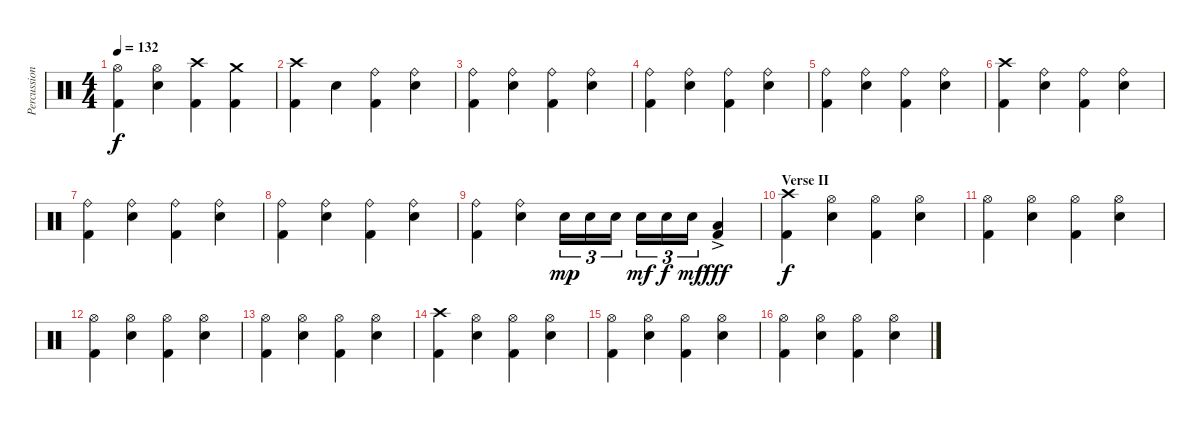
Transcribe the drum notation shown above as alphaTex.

\track ("Percussion" "Percussion") {instrument percussion}
\staff {score}
\articulation defaults
\ts (4 4)
\tempo 132
\clef neutral
\ks c
("Kick (hit) 2" "Hi-Hat (open)").4{dy f} ("Electric Snare (hit)" "Hi-Hat (open)").4 ("Kick (hit) 2" "Crash high (hit)").4 ("Kick (hit) 2" "Crash medium (hit)").4 |
("Kick (hit) 2" "Crash high (hit)").4 "Electric Snare (hit)".4 ("Kick (hit) 2" "Ride (bell)").4 ("Electric Snare (hit)" "Ride (bell)").4 |
("Kick (hit) 2" "Ride (bell)").4 ("Electric Snare (hit)" "Ride (bell)").4 ("Kick (hit) 2" "Ride (bell)").4 ("Electric Snare (hit)" "Ride (bell)").4 |
("Kick (hit) 2" "Ride (bell)").4 ("Electric Snare (hit)" "Ride (bell)").4 ("Kick (hit) 2" "Ride (bell)").4 ("Electric Snare (hit)" "Ride (bell)").4 |
("Kick (hit) 2" "Ride (bell)").4 ("Electric Snare (hit)" "Ride (bell)").4 ("Kick (hit) 2" "Ride (bell)").4 ("Electric Snare (hit)" "Ride (bell)").4 |
("Kick (hit) 2" "Crash high (hit)").4 ("Electric Snare (hit)" "Ride (bell)").4 ("Kick (hit) 2" "Ride (bell)").4 ("Electric Snare (hit)" "Ride (bell)").4 |
("Kick (hit) 2" "Ride (bell)").4 ("Electric Snare (hit)" "Ride (bell)").4 ("Kick (hit) 2" "Ride (bell)").4 ("Electric Snare (hit)" "Ride (bell)").4 |
("Kick (hit) 2" "Ride (bell)").4 ("Electric Snare (hit)" "Ride (bell)").4 ("Kick (hit) 2" "Ride (bell)").4 ("Electric Snare (hit)" "Ride (bell)").4 |
("Kick (hit) 2" "Ride (bell)").4 ("Electric Snare (hit)" "Ride (bell)").4 "Electric Snare (hit)".16{tu (3 2) dy mp} "Electric Snare (hit)".16{tu (3 2)} "Electric Snare (hit)".16{tu (3 2)} "Electric Snare (hit)".16{tu (3 2) dy mf} "Electric Snare (hit)".16{tu (3 2) dy f} "Electric Snare (hit)".16{tu (3 2) dy mf} ("Kick (hit) 2" "Low Tom (hit)"{ac}).4{dy fff} |
\section ("" "Verse II")
("Kick (hit) 2" "Crash high (hit)").4{dy f} ("Electric Snare (hit)" "Hi-Hat (open)").4 ("Kick (hit) 2" "Hi-Hat (open)").4 ("Electric Snare (hit)" "Hi-Hat (open)").4 |
("Kick (hit) 2" "Hi-Hat (open)").4 ("Electric Snare (hit)" "Hi-Hat (open)").4 ("Kick (hit) 2" "Hi-Hat (open)").4 ("Electric Snare (hit)" "Hi-Hat (open)").4 |
("Kick (hit) 2" "Hi-Hat (open)").4 ("Electric Snare (hit)" "Hi-Hat (open)").4 ("Kick (hit) 2" "Hi-Hat (open)").4 ("Electric Snare (hit)" "Hi-Hat (open)").4 |
("Kick (hit) 2" "Hi-Hat (open)").4 ("Electric Snare (hit)" "Hi-Hat (open)").4 ("Kick (hit) 2" "Hi-Hat (open)").4 ("Electric Snare (hit)" "Hi-Hat (open)").4 |
("Kick (hit) 2" "Crash high (hit)").4 ("Electric Snare (hit)" "Hi-Hat (open)").4 ("Kick (hit) 2" "Hi-Hat (open)").4 ("Electric Snare (hit)" "Hi-Hat (open)").4 |
("Kick (hit) 2" "Hi-Hat (open)").4 ("Electric Snare (hit)" "Hi-Hat (open)").4 ("Kick (hit) 2" "Hi-Hat (open)").4 ("Electric Snare (hit)" "Hi-Hat (open)").4 |
("Kick (hit) 2" "Hi-Hat (open)").4 ("Electric Snare (hit)" "Hi-Hat (open)").4 ("Kick (hit) 2" "Hi-Hat (open)").4 ("Electric Snare (hit)" "Hi-Hat (open)").4
